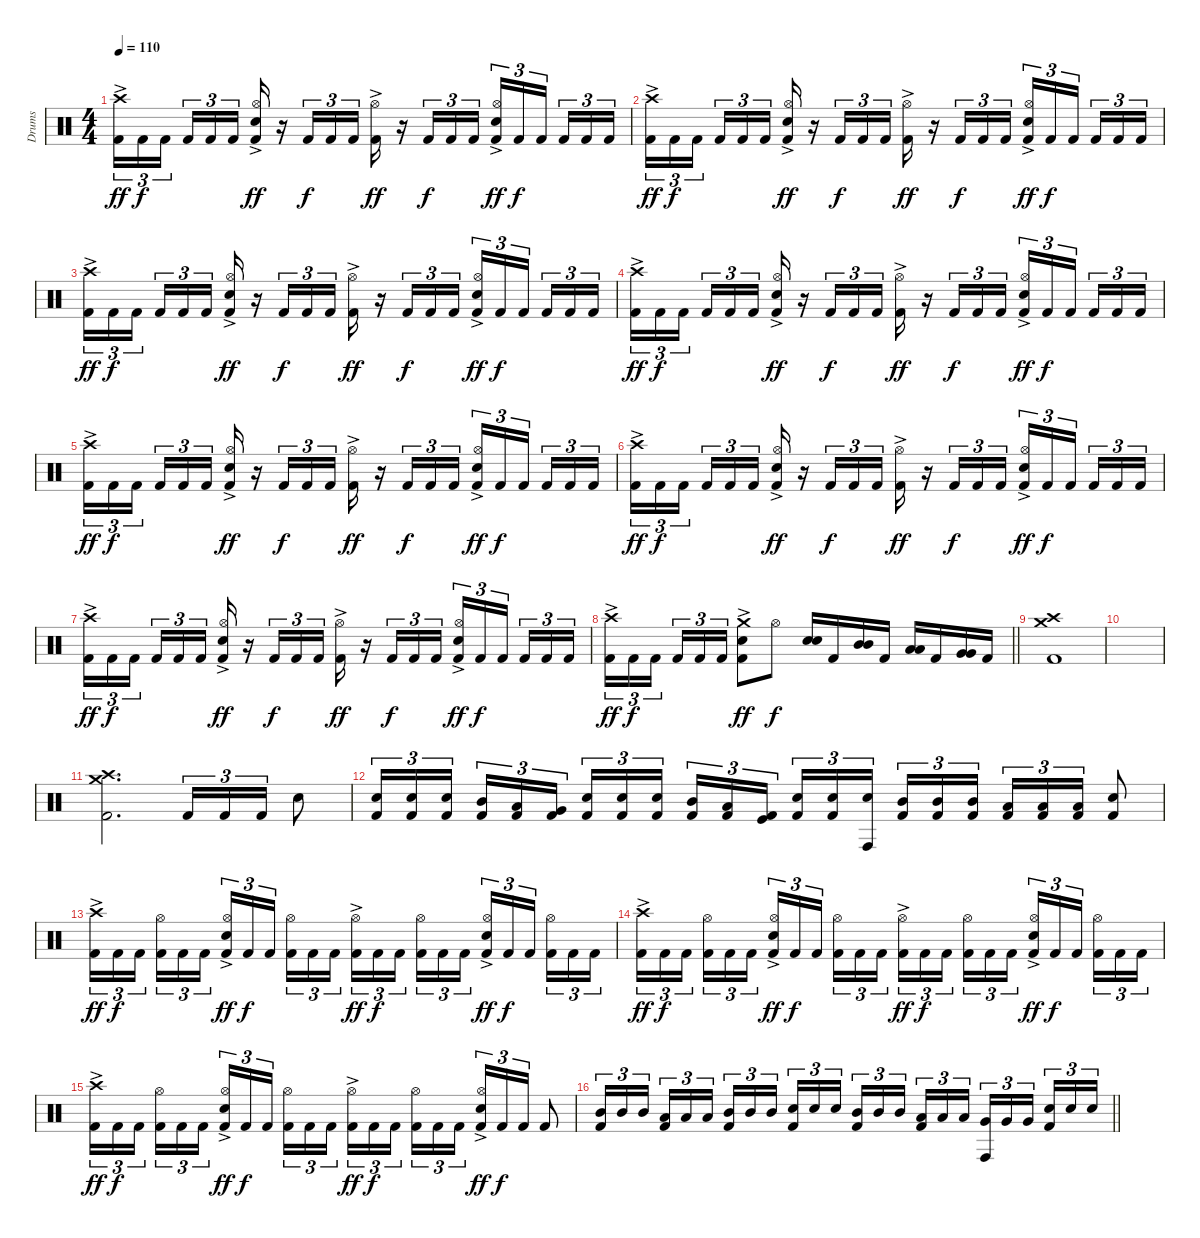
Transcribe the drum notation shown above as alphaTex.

\track ("Drums" "Drums") {instrument percussion}
\staff {score}
\articulation defaults
\ts (4 4)
\tempo 110
\clef neutral
\ks c
("Crash high (hit)" "Kick (hit) 2"{ac}).16{tu (3 2) dy ff} "Kick (hit) 2".16{tu (3 2) dy f} "Kick (hit) 2".16{tu (3 2) beam splitsecondary} "Kick (hit) 2".16{tu (3 2)} "Kick (hit) 2".16{tu (3 2)} "Kick (hit) 2".16{tu (3 2)} ("Hi-Hat (open)" "Snare (hit) 2" "Kick (hit) 2"{ac}).16{dy ff} r.16 "Kick (hit) 2".16{tu (3 2) dy f} "Kick (hit) 2".16{tu (3 2)} "Kick (hit) 2".16{tu (3 2)} ("Hi-Hat (open)" "Kick (hit) 2"{ac}).16{dy ff} r.16 "Kick (hit) 2".16{tu (3 2) dy f} "Kick (hit) 2".16{tu (3 2)} "Kick (hit) 2".16{tu (3 2)} ("Hi-Hat (open)" "Snare (hit) 2" "Kick (hit) 2"{ac}).16{tu (3 2) dy ff} "Kick (hit) 2".16{tu (3 2) dy f} "Kick (hit) 2".16{tu (3 2) beam splitsecondary} "Kick (hit) 2".16{tu (3 2)} "Kick (hit) 2".16{tu (3 2)} "Kick (hit) 2".16{tu (3 2)} |
("Crash high (hit)" "Kick (hit) 2"{ac}).16{tu (3 2) dy ff} "Kick (hit) 2".16{tu (3 2) dy f} "Kick (hit) 2".16{tu (3 2) beam splitsecondary} "Kick (hit) 2".16{tu (3 2)} "Kick (hit) 2".16{tu (3 2)} "Kick (hit) 2".16{tu (3 2)} ("Hi-Hat (open)" "Snare (hit) 2" "Kick (hit) 2"{ac}).16{dy ff} r.16 "Kick (hit) 2".16{tu (3 2) dy f} "Kick (hit) 2".16{tu (3 2)} "Kick (hit) 2".16{tu (3 2)} ("Hi-Hat (open)" "Kick (hit) 2"{ac}).16{dy ff} r.16 "Kick (hit) 2".16{tu (3 2) dy f} "Kick (hit) 2".16{tu (3 2)} "Kick (hit) 2".16{tu (3 2)} ("Hi-Hat (open)" "Snare (hit) 2" "Kick (hit) 2"{ac}).16{tu (3 2) dy ff} "Kick (hit) 2".16{tu (3 2) dy f} "Kick (hit) 2".16{tu (3 2) beam splitsecondary} "Kick (hit) 2".16{tu (3 2)} "Kick (hit) 2".16{tu (3 2)} "Kick (hit) 2".16{tu (3 2)} |
("Crash high (hit)" "Kick (hit) 2"{ac}).16{tu (3 2) dy ff} "Kick (hit) 2".16{tu (3 2) dy f} "Kick (hit) 2".16{tu (3 2) beam splitsecondary} "Kick (hit) 2".16{tu (3 2)} "Kick (hit) 2".16{tu (3 2)} "Kick (hit) 2".16{tu (3 2)} ("Hi-Hat (open)" "Snare (hit) 2" "Kick (hit) 2"{ac}).16{dy ff} r.16 "Kick (hit) 2".16{tu (3 2) dy f} "Kick (hit) 2".16{tu (3 2)} "Kick (hit) 2".16{tu (3 2)} ("Hi-Hat (open)" "Kick (hit) 2"{ac}).16{dy ff} r.16 "Kick (hit) 2".16{tu (3 2) dy f} "Kick (hit) 2".16{tu (3 2)} "Kick (hit) 2".16{tu (3 2)} ("Hi-Hat (open)" "Snare (hit) 2" "Kick (hit) 2"{ac}).16{tu (3 2) dy ff} "Kick (hit) 2".16{tu (3 2) dy f} "Kick (hit) 2".16{tu (3 2) beam splitsecondary} "Kick (hit) 2".16{tu (3 2)} "Kick (hit) 2".16{tu (3 2)} "Kick (hit) 2".16{tu (3 2)} |
("Crash high (hit)" "Kick (hit) 2"{ac}).16{tu (3 2) dy ff} "Kick (hit) 2".16{tu (3 2) dy f} "Kick (hit) 2".16{tu (3 2) beam splitsecondary} "Kick (hit) 2".16{tu (3 2)} "Kick (hit) 2".16{tu (3 2)} "Kick (hit) 2".16{tu (3 2)} ("Hi-Hat (open)" "Snare (hit) 2" "Kick (hit) 2"{ac}).16{dy ff} r.16 "Kick (hit) 2".16{tu (3 2) dy f} "Kick (hit) 2".16{tu (3 2)} "Kick (hit) 2".16{tu (3 2)} ("Hi-Hat (open)" "Kick (hit) 2"{ac}).16{dy ff} r.16 "Kick (hit) 2".16{tu (3 2) dy f} "Kick (hit) 2".16{tu (3 2)} "Kick (hit) 2".16{tu (3 2)} ("Hi-Hat (open)" "Snare (hit) 2" "Kick (hit) 2"{ac}).16{tu (3 2) dy ff} "Kick (hit) 2".16{tu (3 2) dy f} "Kick (hit) 2".16{tu (3 2) beam splitsecondary} "Kick (hit) 2".16{tu (3 2)} "Kick (hit) 2".16{tu (3 2)} "Kick (hit) 2".16{tu (3 2)} |
("Crash high (hit)" "Kick (hit) 2"{ac}).16{tu (3 2) dy ff} "Kick (hit) 2".16{tu (3 2) dy f} "Kick (hit) 2".16{tu (3 2) beam splitsecondary} "Kick (hit) 2".16{tu (3 2)} "Kick (hit) 2".16{tu (3 2)} "Kick (hit) 2".16{tu (3 2)} ("Hi-Hat (open)" "Snare (hit) 2" "Kick (hit) 2"{ac}).16{dy ff} r.16 "Kick (hit) 2".16{tu (3 2) dy f} "Kick (hit) 2".16{tu (3 2)} "Kick (hit) 2".16{tu (3 2)} ("Hi-Hat (open)" "Kick (hit) 2"{ac}).16{dy ff} r.16 "Kick (hit) 2".16{tu (3 2) dy f} "Kick (hit) 2".16{tu (3 2)} "Kick (hit) 2".16{tu (3 2)} ("Hi-Hat (open)" "Snare (hit) 2" "Kick (hit) 2"{ac}).16{tu (3 2) dy ff} "Kick (hit) 2".16{tu (3 2) dy f} "Kick (hit) 2".16{tu (3 2) beam splitsecondary} "Kick (hit) 2".16{tu (3 2)} "Kick (hit) 2".16{tu (3 2)} "Kick (hit) 2".16{tu (3 2)} |
("Crash high (hit)" "Kick (hit) 2"{ac}).16{tu (3 2) dy ff} "Kick (hit) 2".16{tu (3 2) dy f} "Kick (hit) 2".16{tu (3 2) beam splitsecondary} "Kick (hit) 2".16{tu (3 2)} "Kick (hit) 2".16{tu (3 2)} "Kick (hit) 2".16{tu (3 2)} ("Hi-Hat (open)" "Snare (hit) 2" "Kick (hit) 2"{ac}).16{dy ff} r.16 "Kick (hit) 2".16{tu (3 2) dy f} "Kick (hit) 2".16{tu (3 2)} "Kick (hit) 2".16{tu (3 2)} ("Hi-Hat (open)" "Kick (hit) 2"{ac}).16{dy ff} r.16 "Kick (hit) 2".16{tu (3 2) dy f} "Kick (hit) 2".16{tu (3 2)} "Kick (hit) 2".16{tu (3 2)} ("Hi-Hat (open)" "Snare (hit) 2" "Kick (hit) 2"{ac}).16{tu (3 2) dy ff} "Kick (hit) 2".16{tu (3 2) dy f} "Kick (hit) 2".16{tu (3 2) beam splitsecondary} "Kick (hit) 2".16{tu (3 2)} "Kick (hit) 2".16{tu (3 2)} "Kick (hit) 2".16{tu (3 2)} |
("Crash high (hit)" "Kick (hit) 2"{ac}).16{tu (3 2) dy ff} "Kick (hit) 2".16{tu (3 2) dy f} "Kick (hit) 2".16{tu (3 2) beam splitsecondary} "Kick (hit) 2".16{tu (3 2)} "Kick (hit) 2".16{tu (3 2)} "Kick (hit) 2".16{tu (3 2)} ("Hi-Hat (open)" "Snare (hit) 2" "Kick (hit) 2"{ac}).16{dy ff} r.16 "Kick (hit) 2".16{tu (3 2) dy f} "Kick (hit) 2".16{tu (3 2)} "Kick (hit) 2".16{tu (3 2)} ("Hi-Hat (open)" "Kick (hit) 2"{ac}).16{dy ff} r.16 "Kick (hit) 2".16{tu (3 2) dy f} "Kick (hit) 2".16{tu (3 2)} "Kick (hit) 2".16{tu (3 2)} ("Hi-Hat (open)" "Snare (hit) 2" "Kick (hit) 2"{ac}).16{tu (3 2) dy ff} "Kick (hit) 2".16{tu (3 2) dy f} "Kick (hit) 2".16{tu (3 2) beam splitsecondary} "Kick (hit) 2".16{tu (3 2)} "Kick (hit) 2".16{tu (3 2)} "Kick (hit) 2".16{tu (3 2)} |
\barLineRight lightlight
("Crash high (hit)" "Kick (hit) 2"{ac}).16{tu (3 2) dy ff} "Kick (hit) 2".16{tu (3 2) dy f} "Kick (hit) 2".16{tu (3 2) beam splitsecondary} "Kick (hit) 2".16{tu (3 2)} "Kick (hit) 2".16{tu (3 2)} "Kick (hit) 2".16{tu (3 2)} ("Crash medium (hit)" "Snare (hit) 2" "Kick (hit) 2"{ac}).8{dy ff} "Hi-Hat (open)".8{dy f} ("Snare (hit) 2" "Snare (hit) 2").16 "Kick (hit) 2".16 ("Mid Tom (hit)" "Mid Tom (hit)").16 "Kick (hit) 2".16 ("Low Tom (hit)" "Low Tom (hit)").16 "Kick (hit) 2".16 ("Very Low Tom (hit)" "Very Low Tom (hit)").16 "Kick (hit) 2".16 |
("Crash high (hit)" "Crash medium (hit)" "Kick (hit) 2").1 |
|
("Crash high (hit)" "Crash medium (hit)" "Kick (hit) 2").2{d} "Kick (hit) 2".16{tu (3 2)} "Kick (hit) 2".16{tu (3 2)} "Kick (hit) 2".16{tu (3 2)} "Snare (hit) 2".8 |
("Snare (hit) 2" "Kick (hit) 2").16{tu (3 2)} ("Snare (hit) 2" "Kick (hit) 2").16{tu (3 2)} ("Snare (hit) 2" "Kick (hit) 2").16{tu (3 2) beam splitsecondary} ("Mid Tom (hit)" "Kick (hit) 2").16{tu (3 2)} ("Low Tom (hit)" "Kick (hit) 2").16{tu (3 2)} ("Very Low Tom (hit)" "Kick (hit) 2").16{tu (3 2)} ("Snare (hit) 2" "Kick (hit) 2").16{tu (3 2)} ("Snare (hit) 2" "Kick (hit) 2").16{tu (3 2)} ("Snare (hit) 2" "Kick (hit) 2").16{tu (3 2) beam splitsecondary} ("Mid Tom (hit)" "Kick (hit) 2").16{tu (3 2)} ("Low Tom (hit)" "Kick (hit) 2").16{tu (3 2)} ("Kick (hit)" "Kick (hit) 2").16{tu (3 2)} ("Snare (hit) 2" "Kick (hit) 2").16{tu (3 2)} ("Snare (hit) 2" "Kick (hit) 2").16{tu (3 2)} ("Snare (hit) 2" "Conga high (hit)").16{tu (3 2) beam splitsecondary} ("Mid Tom (hit)" "Kick (hit) 2").16{tu (3 2)} ("Mid Tom (hit)" "Kick (hit) 2").16{tu (3 2)} ("Mid Tom (hit)" "Kick (hit) 2").16{tu (3 2)} ("Low Tom (hit)" "Kick (hit) 2").16{tu (3 2)} ("Low Tom (hit)" "Kick (hit) 2").16{tu (3 2)} ("Low Tom (hit)" "Kick (hit) 2").16{tu (3 2)} ("Snare (hit) 2" "Kick (hit) 2").8 |
("Crash high (hit)"{ac} "Kick (hit) 2").16{tu (3 2) dy ff} "Kick (hit) 2".16{tu (3 2) dy f} "Kick (hit) 2".16{tu (3 2) beam splitsecondary} ("Hi-Hat (open)" "Kick (hit) 2").16{tu (3 2)} "Kick (hit) 2".16{tu (3 2)} "Kick (hit) 2".16{tu (3 2)} ("Hi-Hat (open)"{ac} "Snare (hit) 2" "Kick (hit) 2").16{tu (3 2) dy ff} "Kick (hit) 2".16{tu (3 2) dy f} "Kick (hit) 2".16{tu (3 2) beam splitsecondary} ("Hi-Hat (open)" "Kick (hit) 2").16{tu (3 2)} "Kick (hit) 2".16{tu (3 2)} "Kick (hit) 2".16{tu (3 2)} ("Hi-Hat (open)"{ac} "Kick (hit) 2").16{tu (3 2) dy ff} "Kick (hit) 2".16{tu (3 2) dy f} "Kick (hit) 2".16{tu (3 2) beam splitsecondary} ("Hi-Hat (open)" "Kick (hit) 2").16{tu (3 2)} "Kick (hit) 2".16{tu (3 2)} "Kick (hit) 2".16{tu (3 2)} ("Hi-Hat (open)"{ac} "Snare (hit) 2" "Kick (hit) 2").16{tu (3 2) dy ff} "Kick (hit) 2".16{tu (3 2) dy f} "Kick (hit) 2".16{tu (3 2) beam splitsecondary} ("Hi-Hat (open)" "Kick (hit) 2").16{tu (3 2)} "Kick (hit) 2".16{tu (3 2)} "Kick (hit) 2".16{tu (3 2)} |
("Crash high (hit)"{ac} "Kick (hit) 2").16{tu (3 2) dy ff} "Kick (hit) 2".16{tu (3 2) dy f} "Kick (hit) 2".16{tu (3 2) beam splitsecondary} ("Hi-Hat (open)" "Kick (hit) 2").16{tu (3 2)} "Kick (hit) 2".16{tu (3 2)} "Kick (hit) 2".16{tu (3 2)} ("Hi-Hat (open)"{ac} "Snare (hit) 2" "Kick (hit) 2").16{tu (3 2) dy ff} "Kick (hit) 2".16{tu (3 2) dy f} "Kick (hit) 2".16{tu (3 2) beam splitsecondary} ("Hi-Hat (open)" "Kick (hit) 2").16{tu (3 2)} "Kick (hit) 2".16{tu (3 2)} "Kick (hit) 2".16{tu (3 2)} ("Hi-Hat (open)"{ac} "Kick (hit) 2").16{tu (3 2) dy ff} "Kick (hit) 2".16{tu (3 2) dy f} "Kick (hit) 2".16{tu (3 2) beam splitsecondary} ("Hi-Hat (open)" "Kick (hit) 2").16{tu (3 2)} "Kick (hit) 2".16{tu (3 2)} "Kick (hit) 2".16{tu (3 2)} ("Hi-Hat (open)"{ac} "Snare (hit) 2" "Kick (hit) 2").16{tu (3 2) dy ff} "Kick (hit) 2".16{tu (3 2) dy f} "Kick (hit) 2".16{tu (3 2) beam splitsecondary} ("Hi-Hat (open)" "Kick (hit) 2").16{tu (3 2)} "Kick (hit) 2".16{tu (3 2)} "Kick (hit) 2".16{tu (3 2)} |
("Crash high (hit)"{ac} "Kick (hit) 2").16{tu (3 2) dy ff} "Kick (hit) 2".16{tu (3 2) dy f} "Kick (hit) 2".16{tu (3 2) beam splitsecondary} ("Hi-Hat (open)" "Kick (hit) 2").16{tu (3 2)} "Kick (hit) 2".16{tu (3 2)} "Kick (hit) 2".16{tu (3 2)} ("Hi-Hat (open)"{ac} "Snare (hit) 2" "Kick (hit) 2").16{tu (3 2) dy ff} "Kick (hit) 2".16{tu (3 2) dy f} "Kick (hit) 2".16{tu (3 2) beam splitsecondary} ("Hi-Hat (open)" "Kick (hit) 2").16{tu (3 2)} "Kick (hit) 2".16{tu (3 2)} "Kick (hit) 2".16{tu (3 2)} ("Hi-Hat (open)"{ac} "Kick (hit) 2").16{tu (3 2) dy ff} "Kick (hit) 2".16{tu (3 2) dy f} "Kick (hit) 2".16{tu (3 2) beam splitsecondary} ("Hi-Hat (open)" "Kick (hit) 2").16{tu (3 2)} "Kick (hit) 2".16{tu (3 2)} "Kick (hit) 2".16{tu (3 2)} ("Hi-Hat (open)"{ac} "Snare (hit) 2" "Kick (hit) 2").16{tu (3 2) dy ff} "Kick (hit) 2".16{tu (3 2) dy f} "Kick (hit) 2".16{tu (3 2)} "Kick (hit) 2".8 |
\barLineRight lightlight
("Mid Tom (hit)" "Kick (hit) 2").16{tu (3 2)} "Mid Tom (hit)".16{tu (3 2)} "Mid Tom (hit)".16{tu (3 2) beam splitsecondary} ("Low Tom (hit)" "Kick (hit) 2").16{tu (3 2)} "Low Tom (hit)".16{tu (3 2)} "Low Tom (hit)".16{tu (3 2)} ("Mid Tom (hit)" "Kick (hit) 2").16{tu (3 2)} "Mid Tom (hit)".16{tu (3 2)} "Mid Tom (hit)".16{tu (3 2) beam splitsecondary} ("Snare (hit) 2" "Kick (hit) 2").16{tu (3 2)} "Snare (hit) 2".16{tu (3 2)} "Snare (hit) 2".16{tu (3 2)} ("Mid Tom (hit)" "Kick (hit) 2").16{tu (3 2)} "Mid Tom (hit)".16{tu (3 2)} "Mid Tom (hit)".16{tu (3 2) beam splitsecondary} ("Low Tom (hit)" "Kick (hit) 2").16{tu (3 2)} "Low Tom (hit)".16{tu (3 2)} "Low Tom (hit)".16{tu (3 2)} ("Very Low Tom (hit)" "Conga high (hit)").16{tu (3 2)} "Very Low Tom (hit)".16{tu (3 2)} "Very Low Tom (hit)".16{tu (3 2) beam splitsecondary} ("Snare (hit) 2" "Kick (hit) 2").16{tu (3 2)} "Snare (hit) 2".16{tu (3 2)} "Snare (hit) 2".16{tu (3 2)}
